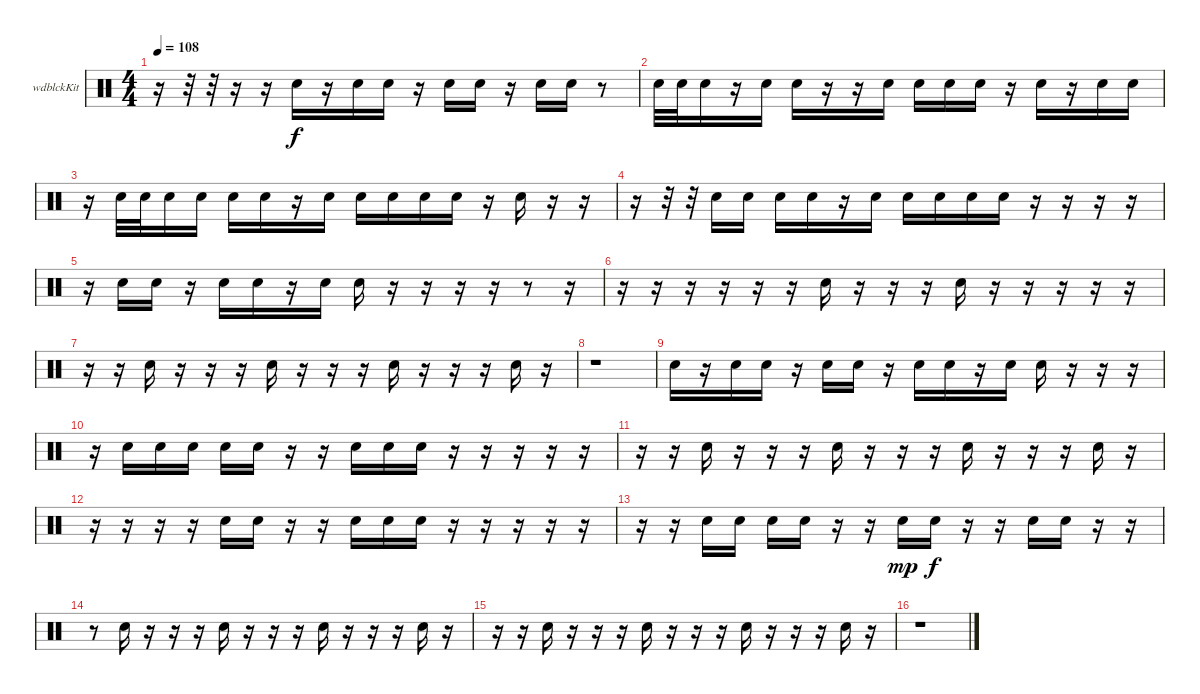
\bracketExtendMode groupsimilarinstruments
\firstSystemTrackNameOrientation horizontal
\otherSystemsTrackNameOrientation horizontal
\track ("Woodblock" "wdblckKit") {instrument percussion}
\staff {score}
\articulation defaults
\ts (4 4)
\tempo 108
\clef neutral
\ks c
r.16{dy f} r.32 r.32 r.16 r.16 "Snare (hit) 2".16 r.16 "Snare (hit) 2".16 "Snare (hit) 2".16 r.16 "Snare (hit) 2".16 "Snare (hit) 2".16 r.16 "Snare (hit) 2".16 "Snare (hit) 2".16 r.8 |
"Snare (hit) 2".32 "Snare (hit) 2".32 "Snare (hit) 2".16 r.16 "Snare (hit) 2".16 "Snare (hit) 2".16 r.16 r.16 "Snare (hit) 2".16 "Snare (hit) 2".16 "Snare (hit) 2".16 "Snare (hit) 2".16 r.16 "Snare (hit) 2".16 r.16 "Snare (hit) 2".16 "Snare (hit) 2".16 |
r.16 "Snare (hit) 2".32 "Snare (hit) 2".32 "Snare (hit) 2".16 "Snare (hit) 2".16 "Snare (hit) 2".16 "Snare (hit) 2".16 r.16 "Snare (hit) 2".16 "Snare (hit) 2".16 "Snare (hit) 2".16 "Snare (hit) 2".16 "Snare (hit) 2".16 r.16 "Snare (hit) 2".16 r.16 r.16 |
r.16 r.32 r.32 "Snare (hit) 2".16 "Snare (hit) 2".16 "Snare (hit) 2".16 "Snare (hit) 2".16 r.16 "Snare (hit) 2".16 "Snare (hit) 2".16 "Snare (hit) 2".16 "Snare (hit) 2".16 "Snare (hit) 2".16 r.16 r.16 r.16 r.16 |
r.16 "Snare (hit) 2".16 "Snare (hit) 2".16 r.16 "Snare (hit) 2".16 "Snare (hit) 2".16 r.16 "Snare (hit) 2".16 "Snare (hit) 2".16 r.16 r.16 r.16 r.16 r.8 r.16 |
r.16 r.16 r.16 r.16 r.16 r.16 "Snare (hit) 2".16 r.16 r.16 r.16 "Snare (hit) 2".16 r.16 r.16 r.16 r.16 r.16 |
r.16 r.16 "Snare (hit) 2".16 r.16 r.16 r.16 "Snare (hit) 2".16 r.16 r.16 r.16 "Snare (hit) 2".16 r.16 r.16 r.16 "Snare (hit) 2".16 r.16 |
r.1 |
"Snare (hit) 2".16 r.16 "Snare (hit) 2".16 "Snare (hit) 2".16 r.16 "Snare (hit) 2".16 "Snare (hit) 2".16 r.16 "Snare (hit) 2".16 "Snare (hit) 2".16 r.16 "Snare (hit) 2".16 "Snare (hit) 2".16 r.16 r.16 r.16 |
r.16 "Snare (hit) 2".16 "Snare (hit) 2".16 "Snare (hit) 2".16 "Snare (hit) 2".16 "Snare (hit) 2".16 r.16 r.16 "Snare (hit) 2".16 "Snare (hit) 2".16 "Snare (hit) 2".16 r.16 r.16 r.16 r.16 r.16 |
r.16 r.16 "Snare (hit) 2".16 r.16 r.16 r.16 "Snare (hit) 2".16 r.16 r.16 r.16 "Snare (hit) 2".16 r.16 r.16 r.16 "Snare (hit) 2".16 r.16 |
r.16 r.16 r.16 r.16 "Snare (hit) 2".16 "Snare (hit) 2".16 r.16 r.16 "Snare (hit) 2".16 "Snare (hit) 2".16 "Snare (hit) 2".16 r.16 r.16 r.16 r.16 r.16 |
r.16 r.16 "Snare (hit) 2".16 "Snare (hit) 2".16 "Snare (hit) 2".16 "Snare (hit) 2".16 r.16 r.16 "Snare (hit) 2".16{dy mp} "Snare (hit) 2".16{dy f} r.16 r.16 "Snare (hit) 2".16 "Snare (hit) 2".16 r.16 r.16 |
r.8 "Snare (hit) 2".16 r.16 r.16 r.16 "Snare (hit) 2".16 r.16 r.16 r.16 "Snare (hit) 2".16 r.16 r.16 r.16 "Snare (hit) 2".16 r.16 |
r.16 r.16 "Snare (hit) 2".16 r.16 r.16 r.16 "Snare (hit) 2".16 r.16 r.16 r.16 "Snare (hit) 2".16 r.16 r.16 r.16 "Snare (hit) 2".16 r.16 |
r.1
